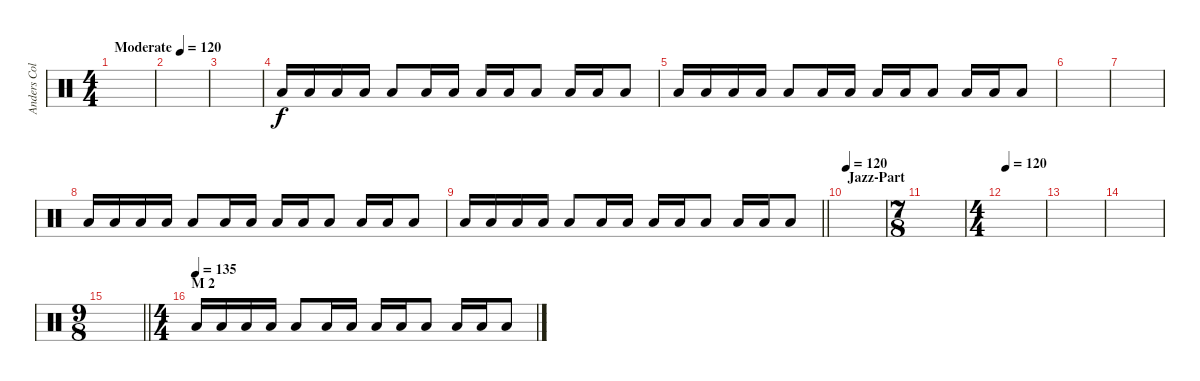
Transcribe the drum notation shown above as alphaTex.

\track ("Anders Colsefni" "Anders Col") {instrument percussion}
\staff {score}
\articulation defaults
\ts (4 4)
\tempo (120 "Moderate")
\clef neutral
\ks c
|
|
|
"Low Floor Tom (hit)".16 "Low Floor Tom (hit)".16 "Low Floor Tom (hit)".16 "Low Floor Tom (hit)".16 "Low Floor Tom (hit)".8 "Low Floor Tom (hit)".16 "Low Floor Tom (hit)".16 "Low Floor Tom (hit)".16 "Low Floor Tom (hit)".16 "Low Floor Tom (hit)".8 "Low Floor Tom (hit)".16 "Low Floor Tom (hit)".16 "Low Floor Tom (hit)".8 |
"Low Floor Tom (hit)".16 "Low Floor Tom (hit)".16 "Low Floor Tom (hit)".16 "Low Floor Tom (hit)".16 "Low Floor Tom (hit)".8 "Low Floor Tom (hit)".16 "Low Floor Tom (hit)".16 "Low Floor Tom (hit)".16 "Low Floor Tom (hit)".16 "Low Floor Tom (hit)".8 "Low Floor Tom (hit)".16 "Low Floor Tom (hit)".16 "Low Floor Tom (hit)".8 |
|
|
"Low Floor Tom (hit)".16 "Low Floor Tom (hit)".16 "Low Floor Tom (hit)".16 "Low Floor Tom (hit)".16 "Low Floor Tom (hit)".8 "Low Floor Tom (hit)".16 "Low Floor Tom (hit)".16 "Low Floor Tom (hit)".16 "Low Floor Tom (hit)".16 "Low Floor Tom (hit)".8 "Low Floor Tom (hit)".16 "Low Floor Tom (hit)".16 "Low Floor Tom (hit)".8 |
\barLineRight lightlight "Low Floor Tom (hit)".16 "Low Floor Tom (hit)".16 "Low Floor Tom (hit)".16 "Low Floor Tom (hit)".16 "Low Floor Tom (hit)".8 "Low Floor Tom (hit)".16 "Low Floor Tom (hit)".16 "Low Floor Tom (hit)".16 "Low Floor Tom (hit)".16 "Low Floor Tom (hit)".8 "Low Floor Tom (hit)".16 "Low Floor Tom (hit)".16 "Low Floor Tom (hit)".8
|
\section ("" "Jazz-Part")
\tempo 120
|
\ts (7 8)
|
\ts (4 4)
\tempo 120
|
|
|
\ts (9 8)
\barLineRight lightlight
|
\ts (4 4)
\section ("" "M 2")
\tempo (135)
"Low Floor Tom (hit)".16 "Low Floor Tom (hit)".16 "Low Floor Tom (hit)".16 "Low Floor Tom (hit)".16 "Low Floor Tom (hit)".8 "Low Floor Tom (hit)".16 "Low Floor Tom (hit)".16 "Low Floor Tom (hit)".16 "Low Floor Tom (hit)".16 "Low Floor Tom (hit)".8 "Low Floor Tom (hit)".16 "Low Floor Tom (hit)".16 "Low Floor Tom (hit)".8
